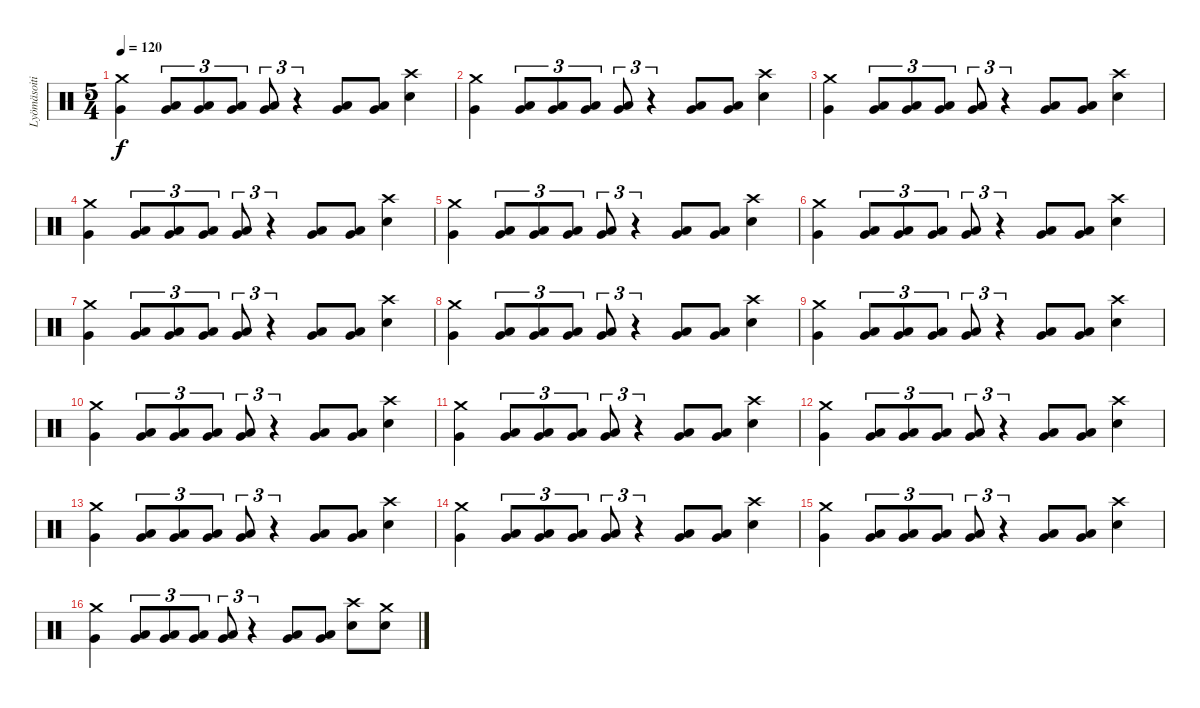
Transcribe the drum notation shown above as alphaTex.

\track ("Lyömäsoitin" "Lyömäsoiti") {instrument percussion}
\staff {score}
\articulation defaults
\ts (5 4)
\tempo 120
\clef neutral
\ks c
("Crash medium (hit)" "Very Low Tom (hit)").4{dy f} ("Low Tom (hit)" "Very Low Tom (hit)").8{tu (3 2)} ("Low Tom (hit)" "Very Low Tom (hit)").8{tu (3 2)} ("Low Tom (hit)" "Very Low Tom (hit)").8{tu (3 2)} ("Low Tom (hit)" "Very Low Tom (hit)").8{tu (3 2)} r.4{tu (3 2)} ("Low Tom (hit)" "Very Low Tom (hit)").8 ("Low Tom (hit)" "Very Low Tom (hit)").8 ("Crash high (hit)" "Electric Snare (hit)").4 |
("Crash medium (hit)" "Very Low Tom (hit)").4 ("Low Tom (hit)" "Very Low Tom (hit)").8{tu (3 2)} ("Low Tom (hit)" "Very Low Tom (hit)").8{tu (3 2)} ("Low Tom (hit)" "Very Low Tom (hit)").8{tu (3 2)} ("Low Tom (hit)" "Very Low Tom (hit)").8{tu (3 2)} r.4{tu (3 2)} ("Low Tom (hit)" "Very Low Tom (hit)").8 ("Low Tom (hit)" "Very Low Tom (hit)").8 ("Crash high (hit)" "Electric Snare (hit)").4 |
("Crash medium (hit)" "Very Low Tom (hit)").4 ("Low Tom (hit)" "Very Low Tom (hit)").8{tu (3 2)} ("Low Tom (hit)" "Very Low Tom (hit)").8{tu (3 2)} ("Low Tom (hit)" "Very Low Tom (hit)").8{tu (3 2)} ("Low Tom (hit)" "Very Low Tom (hit)").8{tu (3 2)} r.4{tu (3 2)} ("Low Tom (hit)" "Very Low Tom (hit)").8 ("Low Tom (hit)" "Very Low Tom (hit)").8 ("Crash high (hit)" "Electric Snare (hit)").4 |
("Crash medium (hit)" "Very Low Tom (hit)").4 ("Low Tom (hit)" "Very Low Tom (hit)").8{tu (3 2)} ("Low Tom (hit)" "Very Low Tom (hit)").8{tu (3 2)} ("Low Tom (hit)" "Very Low Tom (hit)").8{tu (3 2)} ("Low Tom (hit)" "Very Low Tom (hit)").8{tu (3 2)} r.4{tu (3 2)} ("Low Tom (hit)" "Very Low Tom (hit)").8 ("Low Tom (hit)" "Very Low Tom (hit)").8 ("Crash high (hit)" "Electric Snare (hit)").4 |
("Crash medium (hit)" "Very Low Tom (hit)").4 ("Low Tom (hit)" "Very Low Tom (hit)").8{tu (3 2)} ("Low Tom (hit)" "Very Low Tom (hit)").8{tu (3 2)} ("Low Tom (hit)" "Very Low Tom (hit)").8{tu (3 2)} ("Low Tom (hit)" "Very Low Tom (hit)").8{tu (3 2)} r.4{tu (3 2)} ("Low Tom (hit)" "Very Low Tom (hit)").8 ("Low Tom (hit)" "Very Low Tom (hit)").8 ("Crash high (hit)" "Electric Snare (hit)").4 |
("Crash medium (hit)" "Very Low Tom (hit)").4 ("Low Tom (hit)" "Very Low Tom (hit)").8{tu (3 2)} ("Low Tom (hit)" "Very Low Tom (hit)").8{tu (3 2)} ("Low Tom (hit)" "Very Low Tom (hit)").8{tu (3 2)} ("Low Tom (hit)" "Very Low Tom (hit)").8{tu (3 2)} r.4{tu (3 2)} ("Low Tom (hit)" "Very Low Tom (hit)").8 ("Low Tom (hit)" "Very Low Tom (hit)").8 ("Crash high (hit)" "Electric Snare (hit)").4 |
("Crash medium (hit)" "Very Low Tom (hit)").4 ("Low Tom (hit)" "Very Low Tom (hit)").8{tu (3 2)} ("Low Tom (hit)" "Very Low Tom (hit)").8{tu (3 2)} ("Low Tom (hit)" "Very Low Tom (hit)").8{tu (3 2)} ("Low Tom (hit)" "Very Low Tom (hit)").8{tu (3 2)} r.4{tu (3 2)} ("Low Tom (hit)" "Very Low Tom (hit)").8 ("Low Tom (hit)" "Very Low Tom (hit)").8 ("Crash high (hit)" "Electric Snare (hit)").4 |
("Crash medium (hit)" "Very Low Tom (hit)").4 ("Low Tom (hit)" "Very Low Tom (hit)").8{tu (3 2)} ("Low Tom (hit)" "Very Low Tom (hit)").8{tu (3 2)} ("Low Tom (hit)" "Very Low Tom (hit)").8{tu (3 2)} ("Low Tom (hit)" "Very Low Tom (hit)").8{tu (3 2)} r.4{tu (3 2)} ("Low Tom (hit)" "Very Low Tom (hit)").8 ("Low Tom (hit)" "Very Low Tom (hit)").8 ("Crash high (hit)" "Electric Snare (hit)").4 |
("Crash medium (hit)" "Very Low Tom (hit)").4 ("Low Tom (hit)" "Very Low Tom (hit)").8{tu (3 2)} ("Low Tom (hit)" "Very Low Tom (hit)").8{tu (3 2)} ("Low Tom (hit)" "Very Low Tom (hit)").8{tu (3 2)} ("Low Tom (hit)" "Very Low Tom (hit)").8{tu (3 2)} r.4{tu (3 2)} ("Low Tom (hit)" "Very Low Tom (hit)").8 ("Low Tom (hit)" "Very Low Tom (hit)").8 ("Crash high (hit)" "Electric Snare (hit)").4 |
("Crash medium (hit)" "Very Low Tom (hit)").4 ("Low Tom (hit)" "Very Low Tom (hit)").8{tu (3 2)} ("Low Tom (hit)" "Very Low Tom (hit)").8{tu (3 2)} ("Low Tom (hit)" "Very Low Tom (hit)").8{tu (3 2)} ("Low Tom (hit)" "Very Low Tom (hit)").8{tu (3 2)} r.4{tu (3 2)} ("Low Tom (hit)" "Very Low Tom (hit)").8 ("Low Tom (hit)" "Very Low Tom (hit)").8 ("Crash high (hit)" "Electric Snare (hit)").4 |
("Crash medium (hit)" "Very Low Tom (hit)").4 ("Low Tom (hit)" "Very Low Tom (hit)").8{tu (3 2)} ("Low Tom (hit)" "Very Low Tom (hit)").8{tu (3 2)} ("Low Tom (hit)" "Very Low Tom (hit)").8{tu (3 2)} ("Low Tom (hit)" "Very Low Tom (hit)").8{tu (3 2)} r.4{tu (3 2)} ("Low Tom (hit)" "Very Low Tom (hit)").8 ("Low Tom (hit)" "Very Low Tom (hit)").8 ("Crash high (hit)" "Electric Snare (hit)").4 |
("Crash medium (hit)" "Very Low Tom (hit)").4 ("Low Tom (hit)" "Very Low Tom (hit)").8{tu (3 2)} ("Low Tom (hit)" "Very Low Tom (hit)").8{tu (3 2)} ("Low Tom (hit)" "Very Low Tom (hit)").8{tu (3 2)} ("Low Tom (hit)" "Very Low Tom (hit)").8{tu (3 2)} r.4{tu (3 2)} ("Low Tom (hit)" "Very Low Tom (hit)").8 ("Low Tom (hit)" "Very Low Tom (hit)").8 ("Crash high (hit)" "Electric Snare (hit)").4 |
("Crash medium (hit)" "Very Low Tom (hit)").4 ("Low Tom (hit)" "Very Low Tom (hit)").8{tu (3 2)} ("Low Tom (hit)" "Very Low Tom (hit)").8{tu (3 2)} ("Low Tom (hit)" "Very Low Tom (hit)").8{tu (3 2)} ("Low Tom (hit)" "Very Low Tom (hit)").8{tu (3 2)} r.4{tu (3 2)} ("Low Tom (hit)" "Very Low Tom (hit)").8 ("Low Tom (hit)" "Very Low Tom (hit)").8 ("Crash high (hit)" "Electric Snare (hit)").4 |
("Crash medium (hit)" "Very Low Tom (hit)").4 ("Low Tom (hit)" "Very Low Tom (hit)").8{tu (3 2)} ("Low Tom (hit)" "Very Low Tom (hit)").8{tu (3 2)} ("Low Tom (hit)" "Very Low Tom (hit)").8{tu (3 2)} ("Low Tom (hit)" "Very Low Tom (hit)").8{tu (3 2)} r.4{tu (3 2)} ("Low Tom (hit)" "Very Low Tom (hit)").8 ("Low Tom (hit)" "Very Low Tom (hit)").8 ("Crash high (hit)" "Electric Snare (hit)").4 |
("Crash medium (hit)" "Very Low Tom (hit)").4 ("Low Tom (hit)" "Very Low Tom (hit)").8{tu (3 2)} ("Low Tom (hit)" "Very Low Tom (hit)").8{tu (3 2)} ("Low Tom (hit)" "Very Low Tom (hit)").8{tu (3 2)} ("Low Tom (hit)" "Very Low Tom (hit)").8{tu (3 2)} r.4{tu (3 2)} ("Low Tom (hit)" "Very Low Tom (hit)").8 ("Low Tom (hit)" "Very Low Tom (hit)").8 ("Crash high (hit)" "Electric Snare (hit)").4 |
("Crash medium (hit)" "Very Low Tom (hit)").4 ("Low Tom (hit)" "Very Low Tom (hit)").8{tu (3 2)} ("Low Tom (hit)" "Very Low Tom (hit)").8{tu (3 2)} ("Low Tom (hit)" "Very Low Tom (hit)").8{tu (3 2)} ("Low Tom (hit)" "Very Low Tom (hit)").8{tu (3 2)} r.4{tu (3 2)} ("Low Tom (hit)" "Very Low Tom (hit)").8 ("Low Tom (hit)" "Very Low Tom (hit)").8 ("Crash high (hit)" "Electric Snare (hit)").8 ("Crash medium (hit)" "Electric Snare (hit)").8
